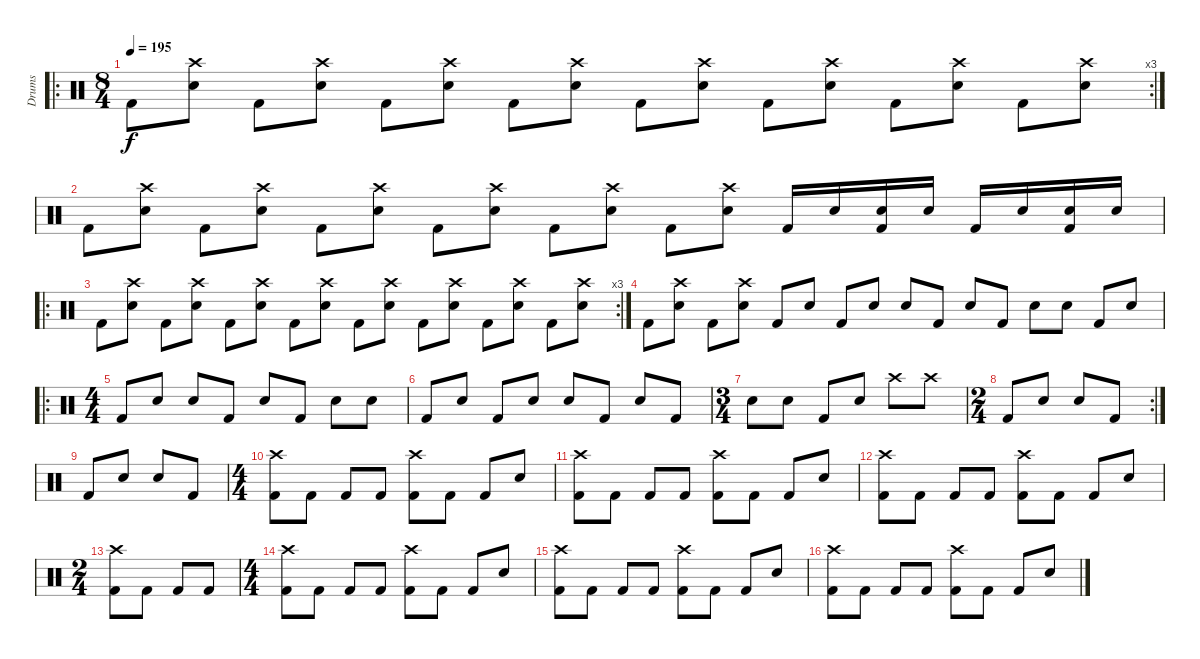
\track ("Drums" "Drums") {instrument percussion}
\staff
\articulation defaults
\ro
\rc 3
\ts (8 4)
\tempo 195
\clef neutral
\ks c "Kick (hit) 2".8{dy f}
("Electric Snare (hit)" "Crash high (hit)").8 "Kick (hit) 2".8 ("Electric Snare (hit)" "Crash high (hit)").8 "Kick (hit) 2".8 ("Electric Snare (hit)" "Crash high (hit)").8 "Kick (hit) 2".8 ("Electric Snare (hit)" "Crash high (hit)").8 "Kick (hit) 2".8 ("Electric Snare (hit)" "Crash high (hit)").8 "Kick (hit) 2".8 ("Electric Snare (hit)" "Crash high (hit)").8 "Kick (hit) 2".8 ("Electric Snare (hit)" "Crash high (hit)").8 "Kick (hit) 2".8 ("Electric Snare (hit)" "Crash high (hit)").8 |
"Kick (hit) 2".8 ("Electric Snare (hit)" "Crash high (hit)").8 "Kick (hit) 2".8 ("Electric Snare (hit)" "Crash high (hit)").8 "Kick (hit) 2".8 ("Electric Snare (hit)" "Crash high (hit)").8 "Kick (hit) 2".8 ("Electric Snare (hit)" "Crash high (hit)").8 "Kick (hit) 2".8 ("Electric Snare (hit)" "Crash high (hit)").8 "Kick (hit) 2".8 ("Electric Snare (hit)" "Crash high (hit)").8 "Kick (hit) 2".16 "Electric Snare (hit)".16 ("Electric Snare (hit)" "Kick (hit) 2").16 "Electric Snare (hit)".16 "Kick (hit) 2".16 "Electric Snare (hit)".16 ("Electric Snare (hit)" "Kick (hit) 2").16 "Electric Snare (hit)".16 |
\ro
\rc 3 "Kick (hit) 2".8
("Electric Snare (hit)" "Crash high (hit)").8 "Kick (hit) 2".8 ("Electric Snare (hit)" "Crash high (hit)").8 "Kick (hit) 2".8 ("Electric Snare (hit)" "Crash high (hit)").8 "Kick (hit) 2".8 ("Electric Snare (hit)" "Crash high (hit)").8 "Kick (hit) 2".8 ("Electric Snare (hit)" "Crash high (hit)").8 "Kick (hit) 2".8 ("Electric Snare (hit)" "Crash high (hit)").8 "Kick (hit) 2".8 ("Electric Snare (hit)" "Crash high (hit)").8 "Kick (hit) 2".8 ("Electric Snare (hit)" "Crash high (hit)").8 |
"Kick (hit) 2".8 ("Electric Snare (hit)" "Crash high (hit)").8 "Kick (hit) 2".8 ("Electric Snare (hit)" "Crash high (hit)").8 "Kick (hit) 2".8 "Electric Snare (hit)".8 "Kick (hit) 2".8 "Electric Snare (hit)".8 "Electric Snare (hit)".8 "Kick (hit) 2".8 "Electric Snare (hit)".8 "Kick (hit) 2".8 "Electric Snare (hit)".8 "Electric Snare (hit)".8 "Kick (hit) 2".8 "Electric Snare (hit)".8 |
\ro
\ts (4 4)
"Kick (hit) 2".8 "Electric Snare (hit)".8 "Electric Snare (hit)".8 "Kick (hit) 2".8 "Electric Snare (hit)".8 "Kick (hit) 2".8 "Electric Snare (hit)".8 "Electric Snare (hit)".8 |
"Kick (hit) 2".8 "Electric Snare (hit)".8 "Kick (hit) 2".8 "Electric Snare (hit)".8 "Electric Snare (hit)".8 "Kick (hit) 2".8 "Electric Snare (hit)".8 "Kick (hit) 2".8 |
\ts (3 4)
"Electric Snare (hit)".8 "Electric Snare (hit)".8 "Kick (hit) 2".8 "Electric Snare (hit)".8 "Crash high (hit)".8 "Crash high (hit)".8 |
\rc 2
\ts (2 4)
"Kick (hit) 2".8 "Electric Snare (hit)".8 "Electric Snare (hit)".8 "Kick (hit) 2".8 |
"Kick (hit) 2".8 "Electric Snare (hit)".8 "Electric Snare (hit)".8 "Kick (hit) 2".8 |
\ts (4 4)
("Crash high (hit)" "Kick (hit) 2").8 "Kick (hit) 2".8 "Kick (hit) 2".8 "Kick (hit) 2".8 ("Crash high (hit)" "Kick (hit) 2").8 "Kick (hit) 2".8 "Kick (hit) 2".8 "Electric Snare (hit)".8 |
("Crash high (hit)" "Kick (hit) 2").8 "Kick (hit) 2".8 "Kick (hit) 2".8 "Kick (hit) 2".8 ("Crash high (hit)" "Kick (hit) 2").8 "Kick (hit) 2".8 "Kick (hit) 2".8 "Electric Snare (hit)".8 |
("Crash high (hit)" "Kick (hit) 2").8 "Kick (hit) 2".8 "Kick (hit) 2".8 "Kick (hit) 2".8 ("Crash high (hit)" "Kick (hit) 2").8 "Kick (hit) 2".8 "Kick (hit) 2".8 "Electric Snare (hit)".8 |
\ts (2 4)
("Crash high (hit)" "Kick (hit) 2").8 "Kick (hit) 2".8 "Kick (hit) 2".8 "Kick (hit) 2".8 |
\ts (4 4)
("Crash high (hit)" "Kick (hit) 2").8 "Kick (hit) 2".8 "Kick (hit) 2".8 "Kick (hit) 2".8 ("Crash high (hit)" "Kick (hit) 2").8 "Kick (hit) 2".8 "Kick (hit) 2".8 "Electric Snare (hit)".8 |
("Crash high (hit)" "Kick (hit) 2").8 "Kick (hit) 2".8 "Kick (hit) 2".8 "Kick (hit) 2".8 ("Crash high (hit)" "Kick (hit) 2").8 "Kick (hit) 2".8 "Kick (hit) 2".8 "Electric Snare (hit)".8 |
("Crash high (hit)" "Kick (hit) 2").8 "Kick (hit) 2".8 "Kick (hit) 2".8 "Kick (hit) 2".8 ("Crash high (hit)" "Kick (hit) 2").8 "Kick (hit) 2".8 "Kick (hit) 2".8 "Electric Snare (hit)".8
